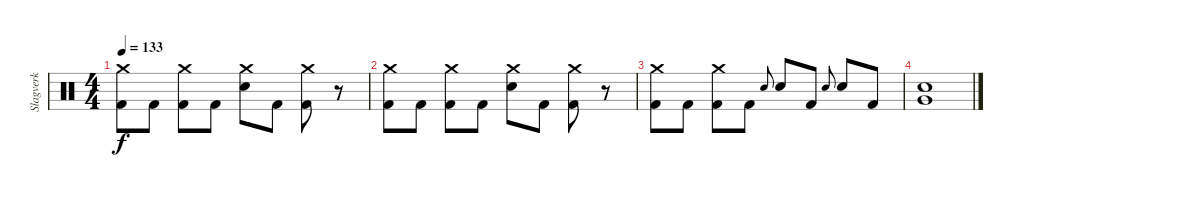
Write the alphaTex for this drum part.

\track ("Slagverk" "Slagverk") {instrument percussion}
\staff {score}
\articulation defaults
\ts (4 4)
\tempo 133
\clef neutral
\ks c
("Crash medium (hit)" "Kick (hit) 2").8{dy f} "Kick (hit) 2".8 ("Crash medium (hit)" "Kick (hit) 2").8 "Kick (hit) 2".8 ("Crash medium (hit)" "Snare (hit) 2").8 "Kick (hit) 2".8 ("Crash medium (hit)" "Kick (hit) 2").8 r.8 |
("Crash medium (hit)" "Kick (hit) 2").8 "Kick (hit) 2".8 ("Crash medium (hit)" "Kick (hit) 2").8 "Kick (hit) 2".8 ("Crash medium (hit)" "Snare (hit) 2").8 "Kick (hit) 2".8 ("Crash medium (hit)" "Kick (hit) 2").8 r.8 |
("Crash medium (hit)" "Kick (hit) 2").8 "Kick (hit) 2".8 ("Crash medium (hit)" "Kick (hit) 2").8 "Kick (hit) 2".8 "Snare (hit) 2".8{gr onbeat} "Snare (hit) 2".8 "Kick (hit) 2".8 "Snare (hit) 2".8{gr onbeat} "Snare (hit) 2".8 "Kick (hit) 2".8 |
("Very Low Tom (hit)" "Snare (hit) 2").1
